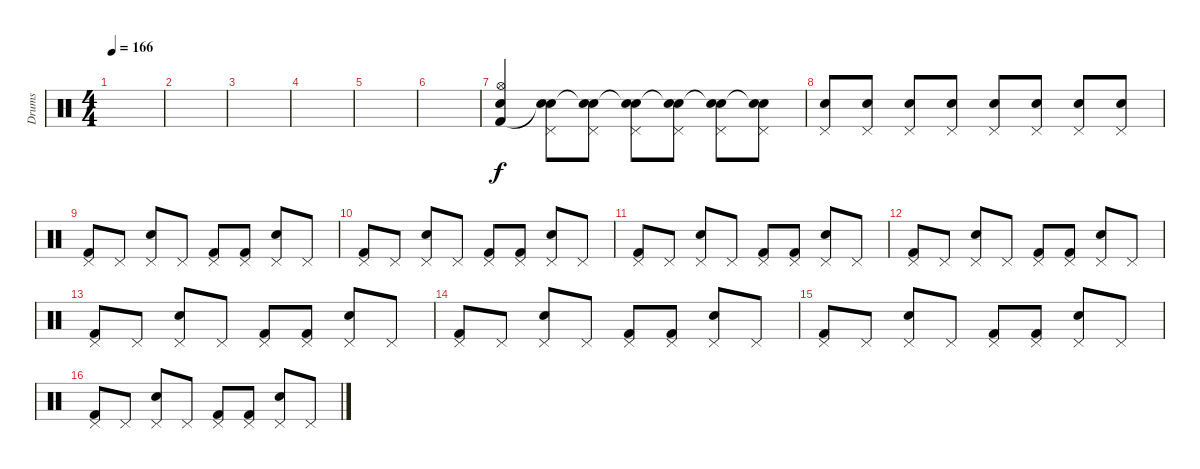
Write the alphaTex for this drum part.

\track ("Drums" "Drums") {instrument percussion}
\staff {score}
\articulation defaults
\ts (4 4)
\tempo 166
\clef neutral
\ks c
|
|
|
|
|
|
("Electric Snare (hit)" "Hi-Hat (open)" "Kick (hit) 2").4 ("Electric Snare (hit)" "Pedal Hi-Hat (hit)" "Snare (hit)"{t}).8 ("Electric Snare (hit)" "Pedal Hi-Hat (hit)" "Snare (hit)"{t}).8 ("Electric Snare (hit)" "Pedal Hi-Hat (hit)" "Snare (hit)"{t}).8 ("Electric Snare (hit)" "Pedal Hi-Hat (hit)" "Snare (hit)"{t}).8 ("Electric Snare (hit)" "Pedal Hi-Hat (hit)" "Snare (hit)"{t}).8 ("Electric Snare (hit)" "Pedal Hi-Hat (hit)" "Snare (hit)"{t}).8 |
("Electric Snare (hit)" "Pedal Hi-Hat (hit)").8 ("Electric Snare (hit)" "Pedal Hi-Hat (hit)").8 ("Electric Snare (hit)" "Pedal Hi-Hat (hit)").8 ("Electric Snare (hit)" "Pedal Hi-Hat (hit)").8 ("Electric Snare (hit)" "Pedal Hi-Hat (hit)").8 ("Electric Snare (hit)" "Pedal Hi-Hat (hit)").8 ("Electric Snare (hit)" "Pedal Hi-Hat (hit)").8 ("Electric Snare (hit)" "Pedal Hi-Hat (hit)").8 |
("Pedal Hi-Hat (hit)" "Kick (hit) 2").8 "Pedal Hi-Hat (hit)".8 ("Electric Snare (hit)" "Pedal Hi-Hat (hit)").8 "Pedal Hi-Hat (hit)".8 ("Pedal Hi-Hat (hit)" "Kick (hit) 2").8 ("Pedal Hi-Hat (hit)" "Kick (hit) 2").8 ("Electric Snare (hit)" "Pedal Hi-Hat (hit)").8 "Pedal Hi-Hat (hit)".8 |
("Pedal Hi-Hat (hit)" "Kick (hit) 2").8 "Pedal Hi-Hat (hit)".8 ("Electric Snare (hit)" "Pedal Hi-Hat (hit)").8 "Pedal Hi-Hat (hit)".8 ("Pedal Hi-Hat (hit)" "Kick (hit) 2").8 ("Pedal Hi-Hat (hit)" "Kick (hit) 2").8 ("Electric Snare (hit)" "Pedal Hi-Hat (hit)").8 "Pedal Hi-Hat (hit)".8 |
("Pedal Hi-Hat (hit)" "Kick (hit) 2").8 "Pedal Hi-Hat (hit)".8 ("Electric Snare (hit)" "Pedal Hi-Hat (hit)").8 "Pedal Hi-Hat (hit)".8 ("Pedal Hi-Hat (hit)" "Kick (hit) 2").8 ("Pedal Hi-Hat (hit)" "Kick (hit) 2").8 ("Electric Snare (hit)" "Pedal Hi-Hat (hit)").8 "Pedal Hi-Hat (hit)".8 |
("Pedal Hi-Hat (hit)" "Kick (hit) 2").8 "Pedal Hi-Hat (hit)".8 ("Electric Snare (hit)" "Pedal Hi-Hat (hit)").8 "Pedal Hi-Hat (hit)".8 ("Pedal Hi-Hat (hit)" "Kick (hit) 2").8 ("Pedal Hi-Hat (hit)" "Kick (hit) 2").8 ("Electric Snare (hit)" "Pedal Hi-Hat (hit)").8 "Pedal Hi-Hat (hit)".8 |
("Pedal Hi-Hat (hit)" "Kick (hit) 2").8 "Pedal Hi-Hat (hit)".8 ("Electric Snare (hit)" "Pedal Hi-Hat (hit)").8 "Pedal Hi-Hat (hit)".8 ("Pedal Hi-Hat (hit)" "Kick (hit) 2").8 ("Pedal Hi-Hat (hit)" "Kick (hit) 2").8 ("Electric Snare (hit)" "Pedal Hi-Hat (hit)").8 "Pedal Hi-Hat (hit)".8 |
("Pedal Hi-Hat (hit)" "Kick (hit) 2").8 "Pedal Hi-Hat (hit)".8 ("Electric Snare (hit)" "Pedal Hi-Hat (hit)").8 "Pedal Hi-Hat (hit)".8 ("Pedal Hi-Hat (hit)" "Kick (hit) 2").8 ("Pedal Hi-Hat (hit)" "Kick (hit) 2").8 ("Electric Snare (hit)" "Pedal Hi-Hat (hit)").8 "Pedal Hi-Hat (hit)".8 |
("Pedal Hi-Hat (hit)" "Kick (hit) 2").8 "Pedal Hi-Hat (hit)".8 ("Electric Snare (hit)" "Pedal Hi-Hat (hit)").8 "Pedal Hi-Hat (hit)".8 ("Pedal Hi-Hat (hit)" "Kick (hit) 2").8 ("Pedal Hi-Hat (hit)" "Kick (hit) 2").8 ("Electric Snare (hit)" "Pedal Hi-Hat (hit)").8 "Pedal Hi-Hat (hit)".8 |
("Pedal Hi-Hat (hit)" "Kick (hit) 2").8 "Pedal Hi-Hat (hit)".8 ("Electric Snare (hit)" "Pedal Hi-Hat (hit)").8 "Pedal Hi-Hat (hit)".8 ("Pedal Hi-Hat (hit)" "Kick (hit) 2").8 ("Pedal Hi-Hat (hit)" "Kick (hit) 2").8 ("Electric Snare (hit)" "Pedal Hi-Hat (hit)").8 "Pedal Hi-Hat (hit)".8
